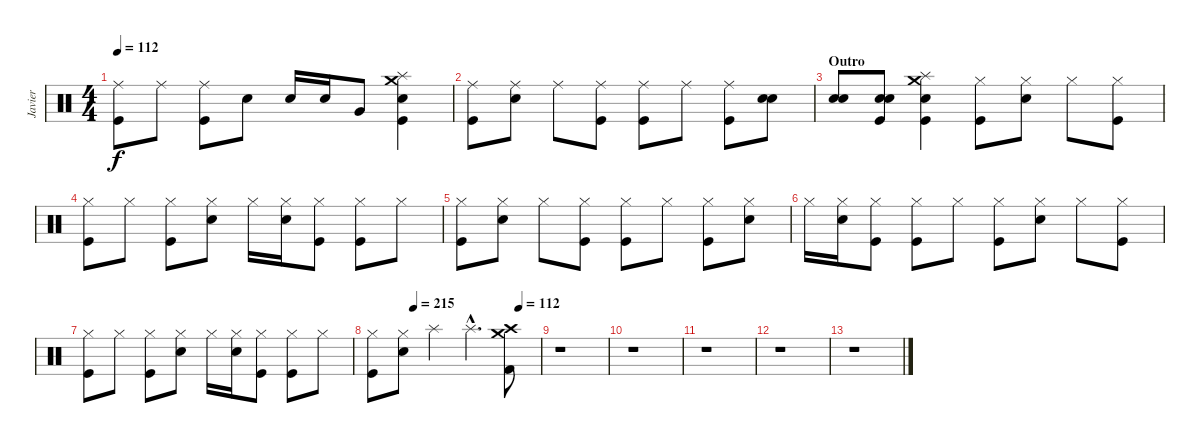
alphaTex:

\track ("Javier" "Javier") {instrument percussion}
\staff {score}
\articulation defaults
\ts (4 4)
\tempo 112
\clef neutral
\ks c
("Ride (middle)" "Kick (hit)").8{dy f} "Ride (middle)".8 ("Ride (middle)" "Kick (hit)").8 "Snare (hit) 2".8 "Snare (hit) 2".16 "Snare (hit) 2".16 "Very Low Tom (hit)".8 ("Crash medium (hit)" "Splash (hit)" "Snare (hit) 2" "Kick (hit)").4 |
("Ride (middle)" "Kick (hit)").8 ("Ride (middle)" "Snare (hit) 2").8 "Ride (middle)".8 ("Ride (middle)" "Kick (hit)").8 ("Ride (middle)" "Kick (hit)").8 "Ride (middle)".8 ("Ride (middle)" "Kick (hit)").8 ("Snare (hit) 2" "Snare (hit) 2").8 |
\section ("" "Outro")
("Snare (hit) 2" "Snare (hit) 2").8 ("Snare (hit) 2" "Snare (hit) 2" "Kick (hit)").8 ("Crash medium (hit)" "Splash (hit)" "Snare (hit) 2" "Kick (hit)").4 ("Hi-Hat (closed)" "Kick (hit)").8 ("Hi-Hat (closed)" "Snare (hit) 2").8 "Hi-Hat (closed)".8 ("Hi-Hat (closed)" "Kick (hit)").8 |
("Hi-Hat (closed)" "Kick (hit)").8 "Hi-Hat (closed)".8 ("Hi-Hat (closed)" "Kick (hit)").8 ("Hi-Hat (closed)" "Snare (hit) 2").8 "Hi-Hat (closed)".16 ("Hi-Hat (closed)" "Snare (hit) 2").16 ("Hi-Hat (closed)" "Kick (hit)").8 ("Hi-Hat (closed)" "Kick (hit)").8 "Hi-Hat (closed)".8 |
("Hi-Hat (closed)" "Kick (hit)").8 ("Hi-Hat (closed)" "Snare (hit) 2").8 "Hi-Hat (closed)".8 ("Hi-Hat (closed)" "Kick (hit)").8 ("Hi-Hat (closed)" "Kick (hit)").8 "Hi-Hat (closed)".8 ("Hi-Hat (closed)" "Kick (hit)").8 ("Hi-Hat (closed)" "Snare (hit) 2").8 |
"Hi-Hat (closed)".16 ("Hi-Hat (closed)" "Snare (hit) 2").16 ("Hi-Hat (closed)" "Kick (hit)").8 ("Hi-Hat (closed)" "Kick (hit)").8 "Hi-Hat (closed)".8 ("Hi-Hat (closed)" "Kick (hit)").8 ("Hi-Hat (closed)" "Snare (hit) 2").8 "Hi-Hat (closed)".8 ("Hi-Hat (closed)" "Kick (hit)").8 |
("Hi-Hat (closed)" "Kick (hit)").8 "Hi-Hat (closed)".8 ("Hi-Hat (closed)" "Kick (hit)").8 ("Hi-Hat (closed)" "Snare (hit) 2").8 "Hi-Hat (closed)".16 ("Hi-Hat (closed)" "Snare (hit) 2").16 ("Hi-Hat (closed)" "Kick (hit)").8 ("Hi-Hat (closed)" "Kick (hit)").8 "Hi-Hat (closed)".8 |
\tempo (215 0.25)
\tempo (112 0.875)
("Hi-Hat (closed)" "Kick (hit)").8 ("Hi-Hat (closed)" "Snare (hit) 2").8 "Splash (hit)".4 "Splash (hit)"{hac}.4{d} ("Crash medium (hit)" "Crash high (hit)" "Kick (hit) 2").8 |
r.1 |
r.1 |
r.1 |
r.1 |
r.1
